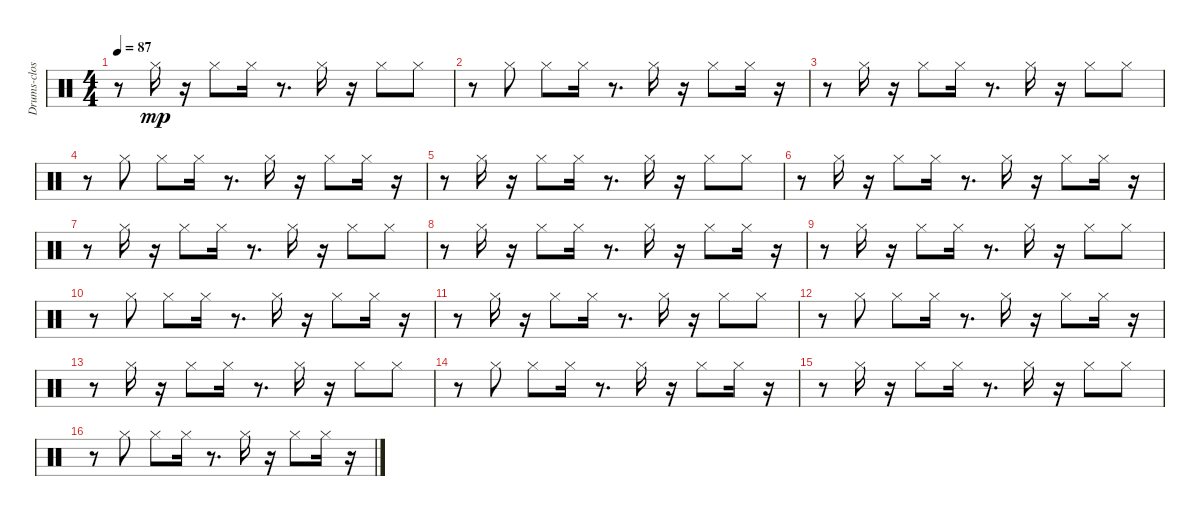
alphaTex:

\track ("Drums-closed hi-hat" "Drums-clos") {instrument percussion}
\staff {score}
\articulation defaults
\ts (4 4)
\tempo 87
\clef neutral
\ks c
r.8{dy mp} "Hi-Hat (closed)".16 r.16 "Hi-Hat (closed)".8 "Hi-Hat (closed)".16 r.8{d} "Hi-Hat (closed)".16 r.16 "Hi-Hat (closed)".8 "Hi-Hat (closed)".8 |
r.8 "Hi-Hat (closed)".8 "Hi-Hat (closed)".8 "Hi-Hat (closed)".16 r.8{d} "Hi-Hat (closed)".16 r.16 "Hi-Hat (closed)".8 "Hi-Hat (closed)".16 r.16 |
r.8 "Hi-Hat (closed)".16 r.16 "Hi-Hat (closed)".8 "Hi-Hat (closed)".16 r.8{d} "Hi-Hat (closed)".16 r.16 "Hi-Hat (closed)".8 "Hi-Hat (closed)".8 |
r.8 "Hi-Hat (closed)".8 "Hi-Hat (closed)".8 "Hi-Hat (closed)".16 r.8{d} "Hi-Hat (closed)".16 r.16 "Hi-Hat (closed)".8 "Hi-Hat (closed)".16 r.16 |
r.8 "Hi-Hat (closed)".16 r.16 "Hi-Hat (closed)".8 "Hi-Hat (closed)".16 r.8{d} "Hi-Hat (closed)".16 r.16 "Hi-Hat (closed)".8 "Hi-Hat (closed)".8 |
r.8 "Hi-Hat (closed)".16 r.16 "Hi-Hat (closed)".8 "Hi-Hat (closed)".16 r.8{d} "Hi-Hat (closed)".16 r.16 "Hi-Hat (closed)".8 "Hi-Hat (closed)".16 r.16 |
r.8 "Hi-Hat (closed)".16 r.16 "Hi-Hat (closed)".8 "Hi-Hat (closed)".16 r.8{d} "Hi-Hat (closed)".16 r.16 "Hi-Hat (closed)".8 "Hi-Hat (closed)".8 |
r.8 "Hi-Hat (closed)".16 r.16 "Hi-Hat (closed)".8 "Hi-Hat (closed)".16 r.8{d} "Hi-Hat (closed)".16 r.16 "Hi-Hat (closed)".8 "Hi-Hat (closed)".16 r.16 |
r.8 "Hi-Hat (closed)".16 r.16 "Hi-Hat (closed)".8 "Hi-Hat (closed)".16 r.8{d} "Hi-Hat (closed)".16 r.16 "Hi-Hat (closed)".8 "Hi-Hat (closed)".8 |
r.8 "Hi-Hat (closed)".8 "Hi-Hat (closed)".8 "Hi-Hat (closed)".16 r.8{d} "Hi-Hat (closed)".16 r.16 "Hi-Hat (closed)".8 "Hi-Hat (closed)".16 r.16 |
r.8 "Hi-Hat (closed)".16 r.16 "Hi-Hat (closed)".8 "Hi-Hat (closed)".16 r.8{d} "Hi-Hat (closed)".16 r.16 "Hi-Hat (closed)".8 "Hi-Hat (closed)".8 |
r.8 "Hi-Hat (closed)".8 "Hi-Hat (closed)".8 "Hi-Hat (closed)".16 r.8{d} "Hi-Hat (closed)".16 r.16 "Hi-Hat (closed)".8 "Hi-Hat (closed)".16 r.16 |
r.8 "Hi-Hat (closed)".16 r.16 "Hi-Hat (closed)".8 "Hi-Hat (closed)".16 r.8{d} "Hi-Hat (closed)".16 r.16 "Hi-Hat (closed)".8 "Hi-Hat (closed)".8 |
r.8 "Hi-Hat (closed)".8 "Hi-Hat (closed)".8 "Hi-Hat (closed)".16 r.8{d} "Hi-Hat (closed)".16 r.16 "Hi-Hat (closed)".8 "Hi-Hat (closed)".16 r.16 |
r.8 "Hi-Hat (closed)".16 r.16 "Hi-Hat (closed)".8 "Hi-Hat (closed)".16 r.8{d} "Hi-Hat (closed)".16 r.16 "Hi-Hat (closed)".8 "Hi-Hat (closed)".8 |
r.8 "Hi-Hat (closed)".8 "Hi-Hat (closed)".8 "Hi-Hat (closed)".16 r.8{d} "Hi-Hat (closed)".16 r.16 "Hi-Hat (closed)".8 "Hi-Hat (closed)".16 r.16
